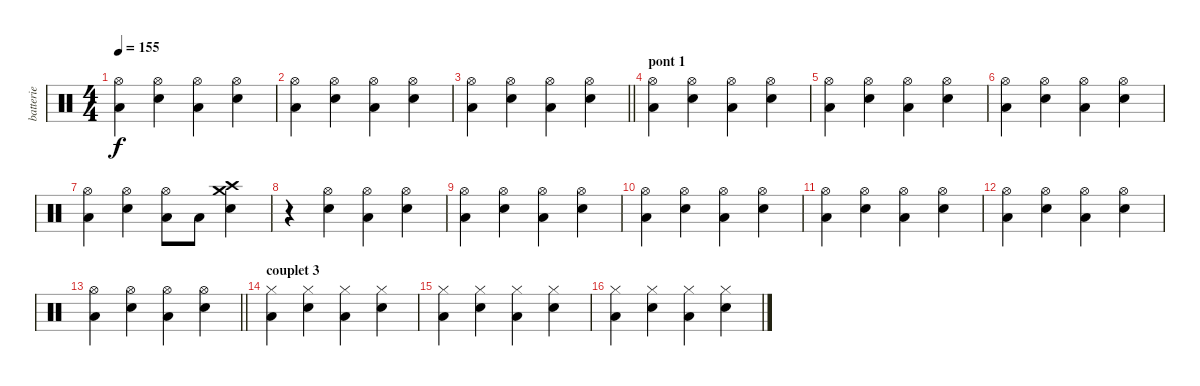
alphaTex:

\track ("batterie" "batterie") {instrument percussion}
\staff {score}
\articulation defaults
\ts (4 4)
\tempo 155
\clef neutral
\ks c
("Hi-Hat (open)" "Low Floor Tom (hit)").4{dy f} ("Hi-Hat (open)" "Electric Snare (hit)").4 ("Hi-Hat (open)" "Low Floor Tom (hit)").4 ("Hi-Hat (open)" "Electric Snare (hit)").4 |
("Hi-Hat (open)" "Low Floor Tom (hit)").4 ("Hi-Hat (open)" "Electric Snare (hit)").4 ("Hi-Hat (open)" "Low Floor Tom (hit)").4 ("Hi-Hat (open)" "Electric Snare (hit)").4 |
\barLineRight lightlight
("Hi-Hat (open)" "Low Floor Tom (hit)").4 ("Hi-Hat (open)" "Electric Snare (hit)").4 ("Hi-Hat (open)" "Low Floor Tom (hit)").4 ("Hi-Hat (open)" "Electric Snare (hit)").4 |
\section ("" "pont 1")
("Hi-Hat (open)" "Low Floor Tom (hit)").4 ("Hi-Hat (open)" "Electric Snare (hit)").4 ("Hi-Hat (open)" "Low Floor Tom (hit)").4 ("Hi-Hat (open)" "Electric Snare (hit)").4 |
("Hi-Hat (open)" "Low Floor Tom (hit)").4 ("Hi-Hat (open)" "Electric Snare (hit)").4 ("Hi-Hat (open)" "Low Floor Tom (hit)").4 ("Hi-Hat (open)" "Electric Snare (hit)").4 |
("Hi-Hat (open)" "Low Floor Tom (hit)").4 ("Hi-Hat (open)" "Electric Snare (hit)").4 ("Hi-Hat (open)" "Low Floor Tom (hit)").4 ("Hi-Hat (open)" "Electric Snare (hit)").4 |
("Hi-Hat (open)" "Low Floor Tom (hit)").4 ("Hi-Hat (open)" "Electric Snare (hit)").4 ("Hi-Hat (open)" "Low Floor Tom (hit)").8 "Low Floor Tom (hit)".8 ("Crash medium (hit)" "Crash high (hit)" "Electric Snare (hit)").4 |
r.4 ("Hi-Hat (open)" "Electric Snare (hit)").4 ("Hi-Hat (open)" "Low Floor Tom (hit)").4 ("Hi-Hat (open)" "Electric Snare (hit)").4 |
("Hi-Hat (open)" "Low Floor Tom (hit)").4 ("Hi-Hat (open)" "Electric Snare (hit)").4 ("Hi-Hat (open)" "Low Floor Tom (hit)").4 ("Hi-Hat (open)" "Electric Snare (hit)").4 |
("Hi-Hat (open)" "Low Floor Tom (hit)").4 ("Hi-Hat (open)" "Electric Snare (hit)").4 ("Hi-Hat (open)" "Low Floor Tom (hit)").4 ("Hi-Hat (open)" "Electric Snare (hit)").4 |
("Hi-Hat (open)" "Low Floor Tom (hit)").4 ("Hi-Hat (open)" "Electric Snare (hit)").4 ("Hi-Hat (open)" "Low Floor Tom (hit)").4 ("Hi-Hat (open)" "Electric Snare (hit)").4 |
("Hi-Hat (open)" "Low Floor Tom (hit)").4 ("Hi-Hat (open)" "Electric Snare (hit)").4 ("Hi-Hat (open)" "Low Floor Tom (hit)").4 ("Hi-Hat (open)" "Electric Snare (hit)").4 |
\barLineRight lightlight
("Hi-Hat (open)" "Low Floor Tom (hit)").4 ("Hi-Hat (open)" "Electric Snare (hit)").4 ("Hi-Hat (open)" "Low Floor Tom (hit)").4 ("Hi-Hat (open)" "Electric Snare (hit)").4 |
\section ("" "couplet 3")
("Hi-Hat (closed)" "Low Floor Tom (hit)").4 ("Hi-Hat (closed)" "Electric Snare (hit)").4 ("Hi-Hat (closed)" "Low Floor Tom (hit)").4 ("Hi-Hat (closed)" "Electric Snare (hit)").4 |
("Hi-Hat (closed)" "Low Floor Tom (hit)").4 ("Hi-Hat (closed)" "Electric Snare (hit)").4 ("Hi-Hat (closed)" "Low Floor Tom (hit)").4 ("Hi-Hat (closed)" "Electric Snare (hit)").4 |
("Hi-Hat (closed)" "Low Floor Tom (hit)").4 ("Hi-Hat (closed)" "Electric Snare (hit)").4 ("Hi-Hat (closed)" "Low Floor Tom (hit)").4 ("Hi-Hat (closed)" "Electric Snare (hit)").4
